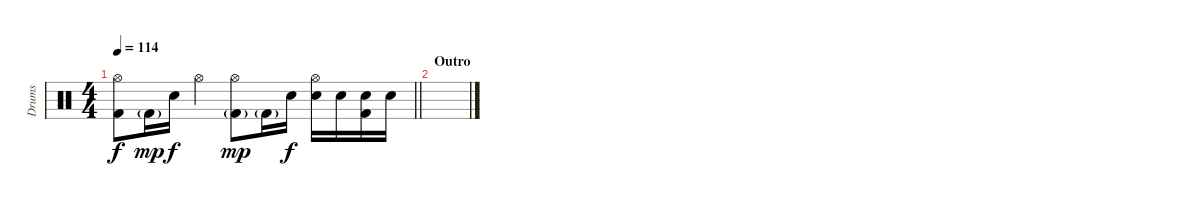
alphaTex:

\track ("Drums" "Drums") {instrument percussion}
\staff {score}
\articulation defaults
\ts (4 4)
\tempo 114
\clef neutral
\barLineRight lightlight
\ks c
("Hi-Hat (open)" "Kick (hit) 2").8{dy f} "Kick (hit) 2"{g}.16{dy mp} "Electric Snare (hit)".16{dy f} "Hi-Hat (open)".4 ("Hi-Hat (open)" "Kick (hit) 2"{g}).8{dy mp} "Kick (hit) 2"{g}.16 "Electric Snare (hit)".16{dy f} ("Hi-Hat (open)" "Electric Snare (hit)").16 "Electric Snare (hit)".16 ("Electric Snare (hit)" "Kick (hit) 2").16 "Electric Snare (hit)".16 |
\section ("" "Outro")
